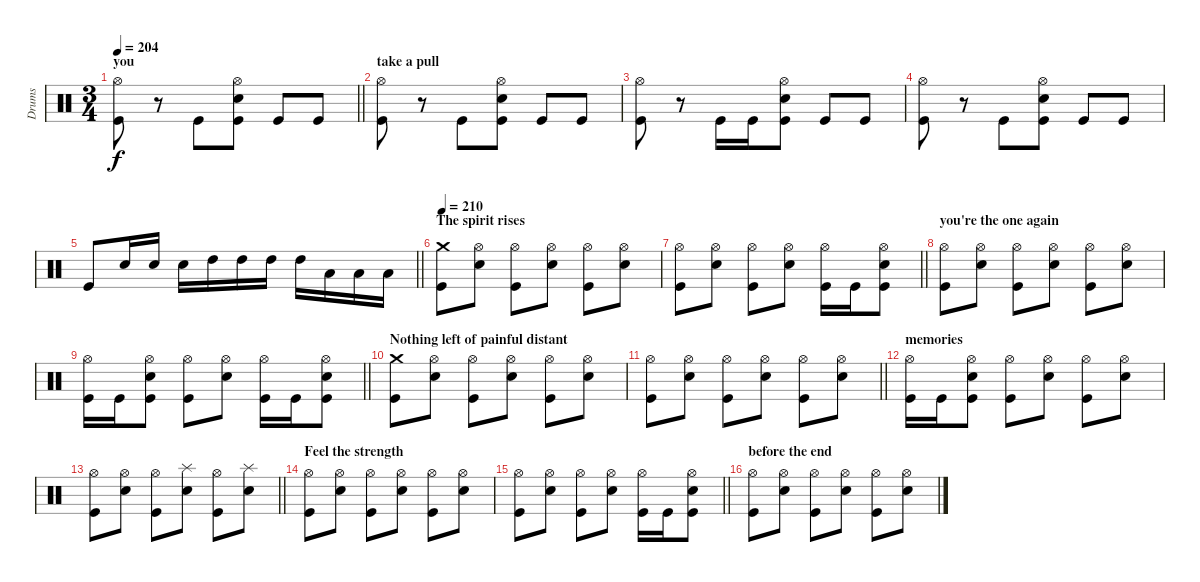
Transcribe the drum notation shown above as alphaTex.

\track ("Drums" "Drums") {instrument percussion}
\staff {score}
\articulation defaults
\ts (3 4)
\section ("" "you ")
\tempo 204
\clef neutral
\barLineRight lightlight
\ks c
("Hi-Hat (open)" "Kick (hit)").8{dy f} r.8 "Kick (hit)".8 ("Hi-Hat (open)" "Snare (hit) 2" "Kick (hit)").8 "Kick (hit)".8 "Kick (hit)".8 |
\section ("" "take a pull")
("Hi-Hat (open)" "Kick (hit)").8 r.8 "Kick (hit)".8 ("Hi-Hat (open)" "Snare (hit) 2" "Kick (hit)").8 "Kick (hit)".8 "Kick (hit)".8 |
("Hi-Hat (open)" "Kick (hit)").8 r.8 "Kick (hit)".16 "Kick (hit)".16 ("Hi-Hat (open)" "Snare (hit) 2" "Kick (hit)").8 "Kick (hit)".8 "Kick (hit)".8 |
("Hi-Hat (open)" "Kick (hit)").8 r.8 "Kick (hit)".8 ("Hi-Hat (open)" "Snare (hit) 2" "Kick (hit)").8 "Kick (hit)".8 "Kick (hit)".8 |
\barLineRight lightlight "Kick (hit)".8 "Snare (hit) 2".16 "Snare (hit) 2".16 "Snare (hit) 2".16 "High Tom (hit)".16 "High Tom (hit)".16 "High Tom (hit)".16 "High Tom (hit)".16 "Low Tom (hit)".16 "Low Tom (hit)".16 "Low Tom (hit)".16
|
\section ("" "The spirit rises ")
\tempo 210
("Crash medium (hit)" "Kick (hit)").8 ("Hi-Hat (open)" "Snare (hit) 2").8 ("Hi-Hat (open)" "Kick (hit)").8 ("Hi-Hat (open)" "Snare (hit) 2").8 ("Hi-Hat (open)" "Kick (hit)").8 ("Hi-Hat (open)" "Snare (hit) 2").8 |
\barLineRight lightlight
("Hi-Hat (open)" "Kick (hit)").8 ("Hi-Hat (open)" "Snare (hit) 2").8 ("Hi-Hat (open)" "Kick (hit)").8 ("Hi-Hat (open)" "Snare (hit) 2").8 ("Hi-Hat (open)" "Kick (hit)").16 "Kick (hit)".16 ("Hi-Hat (open)" "Snare (hit) 2" "Kick (hit)").8 |
\section ("" "you're the one again")
("Hi-Hat (open)" "Kick (hit)").8 ("Hi-Hat (open)" "Snare (hit) 2").8 ("Hi-Hat (open)" "Kick (hit)").8 ("Hi-Hat (open)" "Snare (hit) 2").8 ("Hi-Hat (open)" "Kick (hit)").8 ("Hi-Hat (open)" "Snare (hit) 2").8 |
\barLineRight lightlight
("Hi-Hat (open)" "Kick (hit)").16 "Kick (hit)".16 ("Hi-Hat (open)" "Snare (hit) 2" "Kick (hit)").8 ("Hi-Hat (open)" "Kick (hit)").8 ("Hi-Hat (open)" "Snare (hit) 2").8 ("Hi-Hat (open)" "Kick (hit)").16 "Kick (hit)".16 ("Hi-Hat (open)" "Snare (hit) 2" "Kick (hit)").8 |
\section ("" "Nothing left of painful distant ")
("Crash medium (hit)" "Kick (hit)").8 ("Hi-Hat (open)" "Snare (hit) 2").8 ("Hi-Hat (open)" "Kick (hit)").8 ("Hi-Hat (open)" "Snare (hit) 2").8 ("Hi-Hat (open)" "Kick (hit)").8 ("Hi-Hat (open)" "Snare (hit) 2").8 |
\barLineRight lightlight
("Hi-Hat (open)" "Kick (hit)").8 ("Hi-Hat (open)" "Snare (hit) 2").8 ("Hi-Hat (open)" "Kick (hit)").8 ("Hi-Hat (open)" "Snare (hit) 2").8 ("Hi-Hat (open)" "Kick (hit)").8 ("Hi-Hat (open)" "Snare (hit) 2").8 |
\section ("" "memories")
("Hi-Hat (open)" "Kick (hit)").16 "Kick (hit)".16 ("Hi-Hat (open)" "Snare (hit) 2" "Kick (hit)").8 ("Hi-Hat (open)" "Kick (hit)").8 ("Hi-Hat (open)" "Snare (hit) 2").8 ("Hi-Hat (open)" "Kick (hit)").8 ("Hi-Hat (open)" "Snare (hit) 2").8 |
\barLineRight lightlight
("Hi-Hat (open)" "Kick (hit)").8 ("Hi-Hat (open)" "Snare (hit) 2").8 ("Hi-Hat (open)" "Kick (hit)").8 ("Splash (hit)" "Snare (hit) 2").8 ("Hi-Hat (open)" "Kick (hit)").8 ("Splash (hit)" "Snare (hit) 2").8 |
\section ("" "Feel the strength ")
("Hi-Hat (open)" "Kick (hit)").8 ("Hi-Hat (open)" "Snare (hit) 2").8 ("Hi-Hat (open)" "Kick (hit)").8 ("Hi-Hat (open)" "Snare (hit) 2").8 ("Hi-Hat (open)" "Kick (hit)").8 ("Hi-Hat (open)" "Snare (hit) 2").8 |
\barLineRight lightlight
("Hi-Hat (open)" "Kick (hit)").8 ("Hi-Hat (open)" "Snare (hit) 2").8 ("Hi-Hat (open)" "Kick (hit)").8 ("Hi-Hat (open)" "Snare (hit) 2").8 ("Hi-Hat (open)" "Kick (hit)").16 "Kick (hit)".16 ("Hi-Hat (open)" "Snare (hit) 2" "Kick (hit)").8 |
\section ("" "before the end")
("Hi-Hat (open)" "Kick (hit)").8 ("Hi-Hat (open)" "Snare (hit) 2").8 ("Hi-Hat (open)" "Kick (hit)").8 ("Hi-Hat (open)" "Snare (hit) 2").8 ("Hi-Hat (open)" "Kick (hit)").8 ("Hi-Hat (open)" "Snare (hit) 2").8
